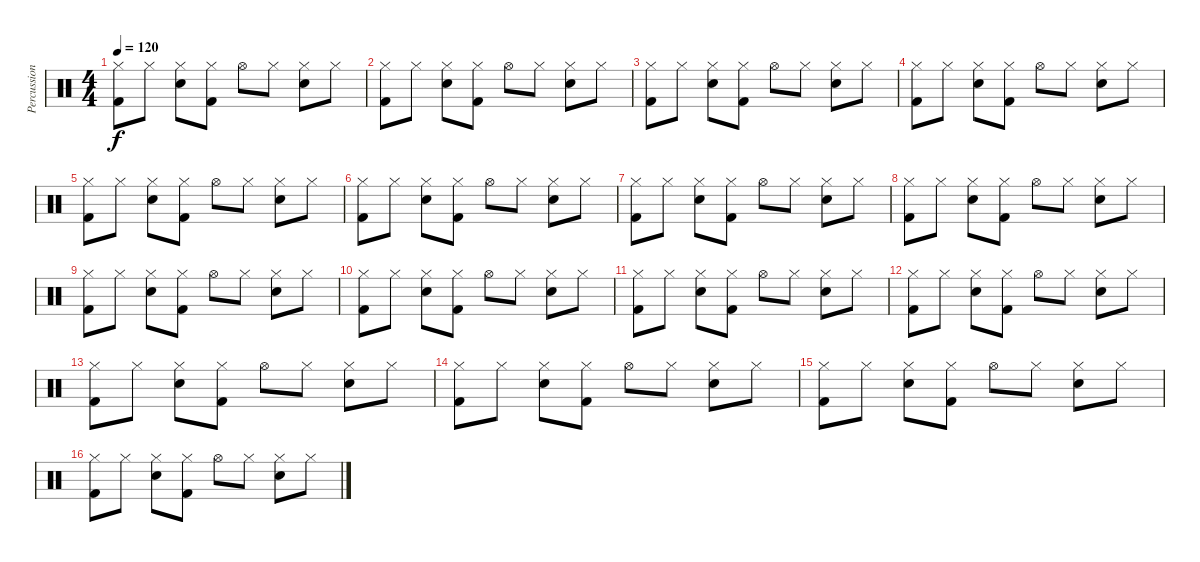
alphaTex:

\track ("Percussion" "Percussion") {instrument percussion}
\staff {score}
\articulation defaults
\ts (4 4)
\tempo 120
\clef neutral
\ks c
("Hi-Hat (closed)" "Kick (hit) 2").8{dy f} "Hi-Hat (closed)".8 ("Hi-Hat (closed)" "Snare (hit) 2").8 ("Hi-Hat (closed)" "Kick (hit) 2").8 "Hi-Hat (open)".8 "Hi-Hat (closed)".8 ("Hi-Hat (closed)" "Snare (hit) 2").8 "Hi-Hat (closed)".8 |
("Hi-Hat (closed)" "Kick (hit) 2").8 "Hi-Hat (closed)".8 ("Hi-Hat (closed)" "Snare (hit) 2").8 ("Hi-Hat (closed)" "Kick (hit) 2").8 "Hi-Hat (open)".8 "Hi-Hat (closed)".8 ("Hi-Hat (closed)" "Snare (hit) 2").8 "Hi-Hat (closed)".8 |
("Hi-Hat (closed)" "Kick (hit) 2").8 "Hi-Hat (closed)".8 ("Hi-Hat (closed)" "Snare (hit) 2").8 ("Hi-Hat (closed)" "Kick (hit) 2").8 "Hi-Hat (open)".8 "Hi-Hat (closed)".8 ("Hi-Hat (closed)" "Snare (hit) 2").8 "Hi-Hat (closed)".8 |
("Hi-Hat (closed)" "Kick (hit) 2").8 "Hi-Hat (closed)".8 ("Hi-Hat (closed)" "Snare (hit) 2").8 ("Hi-Hat (closed)" "Kick (hit) 2").8 "Hi-Hat (open)".8 "Hi-Hat (closed)".8 ("Hi-Hat (closed)" "Snare (hit) 2").8 "Hi-Hat (closed)".8 |
("Hi-Hat (closed)" "Kick (hit) 2").8 "Hi-Hat (closed)".8 ("Hi-Hat (closed)" "Snare (hit) 2").8 ("Hi-Hat (closed)" "Kick (hit) 2").8 "Hi-Hat (open)".8 "Hi-Hat (closed)".8 ("Hi-Hat (closed)" "Snare (hit) 2").8 "Hi-Hat (closed)".8 |
("Hi-Hat (closed)" "Kick (hit) 2").8 "Hi-Hat (closed)".8 ("Hi-Hat (closed)" "Snare (hit) 2").8 ("Hi-Hat (closed)" "Kick (hit) 2").8 "Hi-Hat (open)".8 "Hi-Hat (closed)".8 ("Hi-Hat (closed)" "Snare (hit) 2").8 "Hi-Hat (closed)".8 |
("Hi-Hat (closed)" "Kick (hit) 2").8 "Hi-Hat (closed)".8 ("Hi-Hat (closed)" "Snare (hit) 2").8 ("Hi-Hat (closed)" "Kick (hit) 2").8 "Hi-Hat (open)".8 "Hi-Hat (closed)".8 ("Hi-Hat (closed)" "Snare (hit) 2").8 "Hi-Hat (closed)".8 |
("Hi-Hat (closed)" "Kick (hit) 2").8 "Hi-Hat (closed)".8 ("Hi-Hat (closed)" "Snare (hit) 2").8 ("Hi-Hat (closed)" "Kick (hit) 2").8 "Hi-Hat (open)".8 "Hi-Hat (closed)".8 ("Hi-Hat (closed)" "Snare (hit) 2").8 "Hi-Hat (closed)".8 |
("Hi-Hat (closed)" "Kick (hit) 2").8 "Hi-Hat (closed)".8 ("Hi-Hat (closed)" "Snare (hit) 2").8 ("Hi-Hat (closed)" "Kick (hit) 2").8 "Hi-Hat (open)".8 "Hi-Hat (closed)".8 ("Hi-Hat (closed)" "Snare (hit) 2").8 "Hi-Hat (closed)".8 |
("Hi-Hat (closed)" "Kick (hit) 2").8 "Hi-Hat (closed)".8 ("Hi-Hat (closed)" "Snare (hit) 2").8 ("Hi-Hat (closed)" "Kick (hit) 2").8 "Hi-Hat (open)".8 "Hi-Hat (closed)".8 ("Hi-Hat (closed)" "Snare (hit) 2").8 "Hi-Hat (closed)".8 |
("Hi-Hat (closed)" "Kick (hit) 2").8 "Hi-Hat (closed)".8 ("Hi-Hat (closed)" "Snare (hit) 2").8 ("Hi-Hat (closed)" "Kick (hit) 2").8 "Hi-Hat (open)".8 "Hi-Hat (closed)".8 ("Hi-Hat (closed)" "Snare (hit) 2").8 "Hi-Hat (closed)".8 |
("Hi-Hat (closed)" "Kick (hit) 2").8 "Hi-Hat (closed)".8 ("Hi-Hat (closed)" "Snare (hit) 2").8 ("Hi-Hat (closed)" "Kick (hit) 2").8 "Hi-Hat (open)".8 "Hi-Hat (closed)".8 ("Hi-Hat (closed)" "Snare (hit) 2").8 "Hi-Hat (closed)".8 |
("Hi-Hat (closed)" "Kick (hit) 2").8 "Hi-Hat (closed)".8 ("Hi-Hat (closed)" "Snare (hit) 2").8 ("Hi-Hat (closed)" "Kick (hit) 2").8 "Hi-Hat (open)".8 "Hi-Hat (closed)".8 ("Hi-Hat (closed)" "Snare (hit) 2").8 "Hi-Hat (closed)".8 |
("Hi-Hat (closed)" "Kick (hit) 2").8 "Hi-Hat (closed)".8 ("Hi-Hat (closed)" "Snare (hit) 2").8 ("Hi-Hat (closed)" "Kick (hit) 2").8 "Hi-Hat (open)".8 "Hi-Hat (closed)".8 ("Hi-Hat (closed)" "Snare (hit) 2").8 "Hi-Hat (closed)".8 |
("Hi-Hat (closed)" "Kick (hit) 2").8 "Hi-Hat (closed)".8 ("Hi-Hat (closed)" "Snare (hit) 2").8 ("Hi-Hat (closed)" "Kick (hit) 2").8 "Hi-Hat (open)".8 "Hi-Hat (closed)".8 ("Hi-Hat (closed)" "Snare (hit) 2").8 "Hi-Hat (closed)".8 |
("Hi-Hat (closed)" "Kick (hit) 2").8 "Hi-Hat (closed)".8 ("Hi-Hat (closed)" "Snare (hit) 2").8 ("Hi-Hat (closed)" "Kick (hit) 2").8 "Hi-Hat (open)".8 "Hi-Hat (closed)".8 ("Hi-Hat (closed)" "Snare (hit) 2").8 "Hi-Hat (closed)".8
